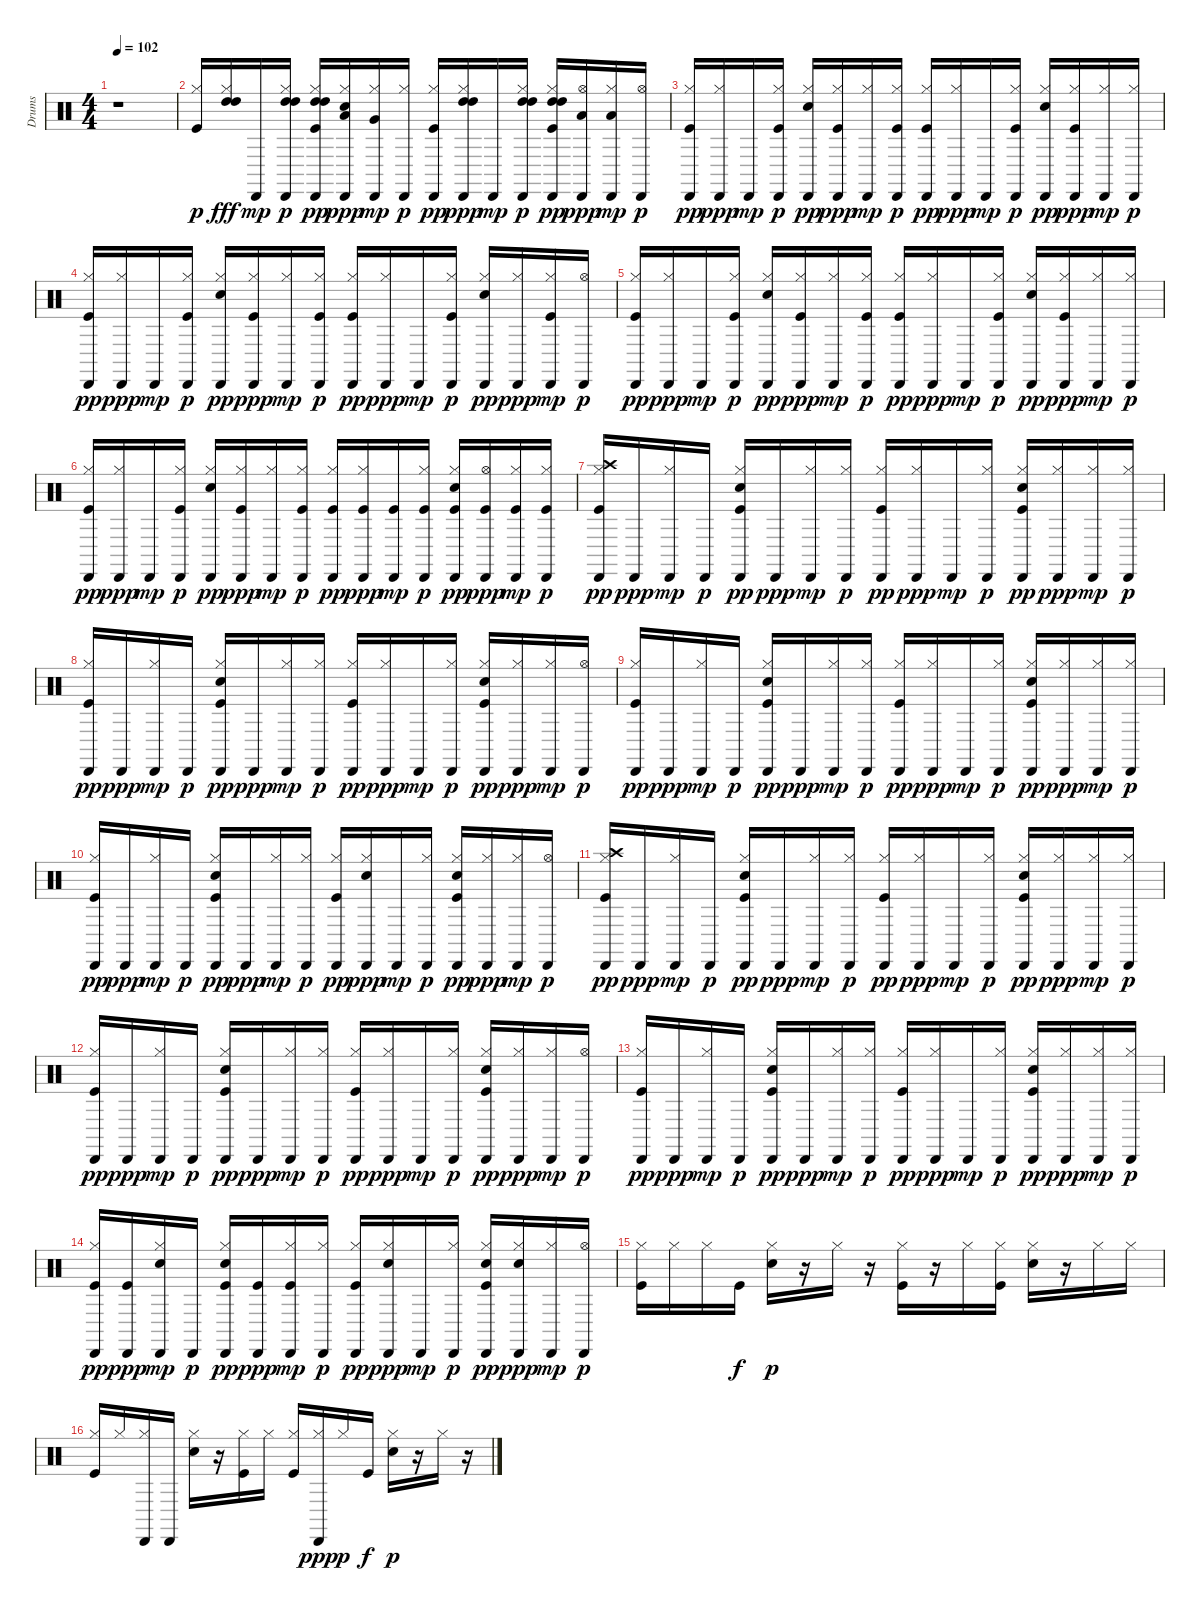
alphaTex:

\track ("Drums" "Drums") {instrument percussion}
\staff {score}
\articulation defaults
\ts (4 4)
\tempo 102
\clef neutral
\ks c
r.1{dy p} |
("Kick (hit)" "Hi-Hat (closed)").16 ("High Tom (hit)" "Hi-Hat (closed)" "High Tom (hit)").16{dy fff} "Cabasa (hit)".16{dy mp} ("High Tom (hit)" "Hi-Hat (closed)" "High Tom (hit)" "Cabasa (hit)").16{dy p} ("High Tom (hit)" "Kick (hit)" "Hi-Hat (closed)" "High Tom (hit)" "Cabasa (hit)").16{dy pp} ("Snare (hit) 2" "Hi-Hat (closed)" "Low Tom (hit)" "Cabasa (hit)").16{dy ppp} ("Hi-Hat (closed)" "Very Low Tom (hit)" "Cabasa (hit)").16{dy mp} ("Hi-Hat (closed)" "Cabasa (hit)").16{dy p} ("Kick (hit)" "Hi-Hat (closed)" "Cabasa (hit)").16{dy pp} ("High Tom (hit)" "Hi-Hat (closed)" "High Tom (hit)" "Cabasa (hit)").16{dy ppp} "Cabasa (hit)".16{dy mp} ("High Tom (hit)" "Hi-Hat (closed)" "High Tom (hit)" "Cabasa (hit)").16{dy p} ("High Tom (hit)" "Kick (hit)" "Hi-Hat (closed)" "High Tom (hit)" "Cabasa (hit)").16{dy pp} ("Low Tom (hit)" "Hi-Hat (open)" "Cabasa (hit)").16{dy ppp} ("Low Floor Tom (hit)" "Hi-Hat (closed)" "Cabasa (hit)").16{dy mp} ("Hi-Hat (open)" "Cabasa (hit)").16{dy p} |
("Kick (hit)" "Hi-Hat (closed)" "Cabasa (hit)").16{dy pp} ("Hi-Hat (closed)" "Cabasa (hit)").16{dy ppp} "Cabasa (hit)".16{dy mp} ("Kick (hit)" "Hi-Hat (closed)" "Cabasa (hit)").16{dy p} ("Snare (hit) 2" "Hi-Hat (closed)" "Cabasa (hit)").16{dy pp} ("Kick (hit)" "Hi-Hat (closed)" "Cabasa (hit)").16{dy ppp} ("Hi-Hat (closed)" "Cabasa (hit)").16{dy mp} ("Kick (hit)" "Hi-Hat (closed)" "Cabasa (hit)").16{dy p} ("Kick (hit)" "Hi-Hat (closed)" "Cabasa (hit)").16{dy pp} ("Hi-Hat (closed)" "Cabasa (hit)").16{dy ppp} "Cabasa (hit)".16{dy mp} ("Kick (hit)" "Hi-Hat (closed)" "Cabasa (hit)").16{dy p} ("Snare (hit) 2" "Hi-Hat (closed)" "Cabasa (hit)").16{dy pp} ("Kick (hit)" "Hi-Hat (closed)" "Cabasa (hit)").16{dy ppp} ("Hi-Hat (closed)" "Cabasa (hit)").16{dy mp} ("Hi-Hat (closed)" "Cabasa (hit)").16{dy p} |
("Kick (hit)" "Hi-Hat (closed)" "Cabasa (hit)").16{dy pp} ("Hi-Hat (closed)" "Cabasa (hit)").16{dy ppp} "Cabasa (hit)".16{dy mp} ("Kick (hit)" "Hi-Hat (closed)" "Cabasa (hit)").16{dy p} ("Snare (hit) 2" "Hi-Hat (closed)" "Cabasa (hit)").16{dy pp} ("Kick (hit)" "Hi-Hat (closed)" "Cabasa (hit)").16{dy ppp} ("Hi-Hat (closed)" "Cabasa (hit)").16{dy mp} ("Kick (hit)" "Hi-Hat (closed)" "Cabasa (hit)").16{dy p} ("Kick (hit)" "Hi-Hat (closed)" "Cabasa (hit)").16{dy pp} ("Hi-Hat (closed)" "Cabasa (hit)").16{dy ppp} "Cabasa (hit)".16{dy mp} ("Kick (hit)" "Hi-Hat (closed)" "Cabasa (hit)").16{dy p} ("Snare (hit) 2" "Hi-Hat (closed)" "Cabasa (hit)").16{dy pp} ("Hi-Hat (closed)" "Cabasa (hit)").16{dy ppp} ("Kick (hit)" "Hi-Hat (closed)" "Cabasa (hit)").16{dy mp} ("Hi-Hat (open)" "Cabasa (hit)").16{dy p} |
("Kick (hit)" "Hi-Hat (closed)" "Cabasa (hit)").16{dy pp} ("Hi-Hat (closed)" "Cabasa (hit)").16{dy ppp} "Cabasa (hit)".16{dy mp} ("Kick (hit)" "Hi-Hat (closed)" "Cabasa (hit)").16{dy p} ("Snare (hit) 2" "Hi-Hat (closed)" "Cabasa (hit)").16{dy pp} ("Kick (hit)" "Hi-Hat (closed)" "Cabasa (hit)").16{dy ppp} ("Hi-Hat (closed)" "Cabasa (hit)").16{dy mp} ("Kick (hit)" "Hi-Hat (closed)" "Cabasa (hit)").16{dy p} ("Kick (hit)" "Hi-Hat (closed)" "Cabasa (hit)").16{dy pp} ("Hi-Hat (closed)" "Cabasa (hit)").16{dy ppp} "Cabasa (hit)".16{dy mp} ("Kick (hit)" "Hi-Hat (closed)" "Cabasa (hit)").16{dy p} ("Snare (hit) 2" "Hi-Hat (closed)" "Cabasa (hit)").16{dy pp} ("Kick (hit)" "Hi-Hat (closed)" "Cabasa (hit)").16{dy ppp} ("Hi-Hat (closed)" "Cabasa (hit)").16{dy mp} ("Hi-Hat (closed)" "Cabasa (hit)").16{dy p} |
("Kick (hit)" "Hi-Hat (closed)" "Cabasa (hit)").16{dy pp} ("Hi-Hat (closed)" "Cabasa (hit)").16{dy ppp} "Cabasa (hit)".16{dy mp} ("Kick (hit)" "Hi-Hat (closed)" "Cabasa (hit)").16{dy p} ("Snare (hit) 2" "Hi-Hat (closed)" "Cabasa (hit)").16{dy pp} ("Kick (hit)" "Hi-Hat (closed)" "Cabasa (hit)").16{dy ppp} ("Hi-Hat (closed)" "Cabasa (hit)").16{dy mp} ("Kick (hit)" "Hi-Hat (closed)" "Cabasa (hit)").16{dy p} ("Kick (hit)" "Hi-Hat (closed)" "Cabasa (hit)").16{dy pp} ("Kick (hit)" "Hi-Hat (closed)" "Cabasa (hit)").16{dy ppp} ("Kick (hit)" "Cabasa (hit)").16{dy mp} ("Kick (hit)" "Hi-Hat (closed)" "Cabasa (hit)").16{dy p} ("Kick (hit)" "Snare (hit) 2" "Hi-Hat (closed)" "Cabasa (hit)").16{dy pp} ("Kick (hit)" "Hi-Hat (open)" "Cabasa (hit)").16{dy ppp} ("Kick (hit)" "Hi-Hat (closed)" "Cabasa (hit)").16{dy mp} ("Kick (hit)" "Hi-Hat (closed)" "Cabasa (hit)").16{dy p} |
("Kick (hit)" "Hi-Hat (closed)" "Crash high (hit)" "Cabasa (hit)").16{dy pp} "Cabasa (hit)".16{dy ppp} ("Hi-Hat (closed)" "Cabasa (hit)").16{dy mp} "Cabasa (hit)".16{dy p} ("Kick (hit)" "Snare (hit) 2" "Hi-Hat (closed)" "Cabasa (hit)").16{dy pp} "Cabasa (hit)".16{dy ppp} ("Hi-Hat (closed)" "Cabasa (hit)").16{dy mp} ("Hi-Hat (closed)" "Cabasa (hit)").16{dy p} ("Kick (hit)" "Hi-Hat (closed)" "Cabasa (hit)").16{dy pp} ("Hi-Hat (closed)" "Cabasa (hit)").16{dy ppp} "Cabasa (hit)".16{dy mp} ("Hi-Hat (closed)" "Cabasa (hit)").16{dy p} ("Kick (hit)" "Snare (hit) 2" "Hi-Hat (closed)" "Cabasa (hit)").16{dy pp} ("Hi-Hat (closed)" "Cabasa (hit)").16{dy ppp} ("Hi-Hat (closed)" "Cabasa (hit)").16{dy mp} ("Hi-Hat (closed)" "Cabasa (hit)").16{dy p} |
("Kick (hit)" "Hi-Hat (closed)" "Cabasa (hit)").16{dy pp} "Cabasa (hit)".16{dy ppp} ("Hi-Hat (closed)" "Cabasa (hit)").16{dy mp} "Cabasa (hit)".16{dy p} ("Kick (hit)" "Snare (hit) 2" "Hi-Hat (closed)" "Cabasa (hit)").16{dy pp} "Cabasa (hit)".16{dy ppp} ("Hi-Hat (closed)" "Cabasa (hit)").16{dy mp} ("Hi-Hat (closed)" "Cabasa (hit)").16{dy p} ("Kick (hit)" "Hi-Hat (closed)" "Cabasa (hit)").16{dy pp} ("Hi-Hat (closed)" "Cabasa (hit)").16{dy ppp} "Cabasa (hit)".16{dy mp} ("Hi-Hat (closed)" "Cabasa (hit)").16{dy p} ("Kick (hit)" "Snare (hit) 2" "Hi-Hat (closed)" "Cabasa (hit)").16{dy pp} ("Hi-Hat (closed)" "Cabasa (hit)").16{dy ppp} ("Hi-Hat (closed)" "Cabasa (hit)").16{dy mp} ("Hi-Hat (open)" "Cabasa (hit)").16{dy p} |
("Kick (hit)" "Hi-Hat (closed)" "Cabasa (hit)").16{dy pp} "Cabasa (hit)".16{dy ppp} ("Hi-Hat (closed)" "Cabasa (hit)").16{dy mp} "Cabasa (hit)".16{dy p} ("Kick (hit)" "Snare (hit) 2" "Hi-Hat (closed)" "Cabasa (hit)").16{dy pp} "Cabasa (hit)".16{dy ppp} ("Hi-Hat (closed)" "Cabasa (hit)").16{dy mp} ("Hi-Hat (closed)" "Cabasa (hit)").16{dy p} ("Kick (hit)" "Hi-Hat (closed)" "Cabasa (hit)").16{dy pp} ("Hi-Hat (closed)" "Cabasa (hit)").16{dy ppp} "Cabasa (hit)".16{dy mp} ("Hi-Hat (closed)" "Cabasa (hit)").16{dy p} ("Kick (hit)" "Snare (hit) 2" "Hi-Hat (closed)" "Cabasa (hit)").16{dy pp} ("Hi-Hat (closed)" "Cabasa (hit)").16{dy ppp} ("Hi-Hat (closed)" "Cabasa (hit)").16{dy mp} ("Hi-Hat (closed)" "Cabasa (hit)").16{dy p} |
("Kick (hit)" "Hi-Hat (closed)" "Cabasa (hit)").16{dy pp} "Cabasa (hit)".16{dy ppp} ("Hi-Hat (closed)" "Cabasa (hit)").16{dy mp} "Cabasa (hit)".16{dy p} ("Kick (hit)" "Snare (hit) 2" "Hi-Hat (closed)" "Cabasa (hit)").16{dy pp} "Cabasa (hit)".16{dy ppp} ("Hi-Hat (closed)" "Cabasa (hit)").16{dy mp} ("Hi-Hat (closed)" "Cabasa (hit)").16{dy p} ("Kick (hit)" "Hi-Hat (closed)" "Cabasa (hit)").16{dy pp} ("Snare (hit) 2" "Hi-Hat (closed)" "Cabasa (hit)").16{dy ppp} "Cabasa (hit)".16{dy mp} ("Hi-Hat (closed)" "Cabasa (hit)").16{dy p} ("Kick (hit)" "Snare (hit) 2" "Hi-Hat (closed)" "Cabasa (hit)").16{dy pp} ("Hi-Hat (closed)" "Cabasa (hit)").16{dy ppp} ("Hi-Hat (closed)" "Cabasa (hit)").16{dy mp} ("Hi-Hat (open)" "Cabasa (hit)").16{dy p} |
("Kick (hit)" "Hi-Hat (closed)" "Crash high (hit)" "Cabasa (hit)").16{dy pp} "Cabasa (hit)".16{dy ppp} ("Hi-Hat (closed)" "Cabasa (hit)").16{dy mp} "Cabasa (hit)".16{dy p} ("Kick (hit)" "Snare (hit) 2" "Hi-Hat (closed)" "Cabasa (hit)").16{dy pp} "Cabasa (hit)".16{dy ppp} ("Hi-Hat (closed)" "Cabasa (hit)").16{dy mp} ("Hi-Hat (closed)" "Cabasa (hit)").16{dy p} ("Kick (hit)" "Hi-Hat (closed)" "Cabasa (hit)").16{dy pp} ("Hi-Hat (closed)" "Cabasa (hit)").16{dy ppp} "Cabasa (hit)".16{dy mp} ("Hi-Hat (closed)" "Cabasa (hit)").16{dy p} ("Kick (hit)" "Snare (hit) 2" "Hi-Hat (closed)" "Cabasa (hit)").16{dy pp} ("Hi-Hat (closed)" "Cabasa (hit)").16{dy ppp} ("Hi-Hat (closed)" "Cabasa (hit)").16{dy mp} ("Hi-Hat (closed)" "Cabasa (hit)").16{dy p} |
("Kick (hit)" "Hi-Hat (closed)" "Cabasa (hit)").16{dy pp} "Cabasa (hit)".16{dy ppp} ("Hi-Hat (closed)" "Cabasa (hit)").16{dy mp} "Cabasa (hit)".16{dy p} ("Kick (hit)" "Snare (hit) 2" "Hi-Hat (closed)" "Cabasa (hit)").16{dy pp} "Cabasa (hit)".16{dy ppp} ("Hi-Hat (closed)" "Cabasa (hit)").16{dy mp} ("Hi-Hat (closed)" "Cabasa (hit)").16{dy p} ("Kick (hit)" "Hi-Hat (closed)" "Cabasa (hit)").16{dy pp} ("Hi-Hat (closed)" "Cabasa (hit)").16{dy ppp} "Cabasa (hit)".16{dy mp} ("Hi-Hat (closed)" "Cabasa (hit)").16{dy p} ("Kick (hit)" "Snare (hit) 2" "Hi-Hat (closed)" "Cabasa (hit)").16{dy pp} ("Hi-Hat (closed)" "Cabasa (hit)").16{dy ppp} ("Hi-Hat (closed)" "Cabasa (hit)").16{dy mp} ("Hi-Hat (open)" "Cabasa (hit)").16{dy p} |
("Kick (hit)" "Hi-Hat (closed)" "Cabasa (hit)").16{dy pp} "Cabasa (hit)".16{dy ppp} ("Hi-Hat (closed)" "Cabasa (hit)").16{dy mp} "Cabasa (hit)".16{dy p} ("Kick (hit)" "Snare (hit) 2" "Hi-Hat (closed)" "Cabasa (hit)").16{dy pp} "Cabasa (hit)".16{dy ppp} ("Hi-Hat (closed)" "Cabasa (hit)").16{dy mp} ("Hi-Hat (closed)" "Cabasa (hit)").16{dy p} ("Kick (hit)" "Hi-Hat (closed)" "Cabasa (hit)").16{dy pp} ("Hi-Hat (closed)" "Cabasa (hit)").16{dy ppp} "Cabasa (hit)".16{dy mp} ("Hi-Hat (closed)" "Cabasa (hit)").16{dy p} ("Kick (hit)" "Snare (hit) 2" "Hi-Hat (closed)" "Cabasa (hit)").16{dy pp} ("Hi-Hat (closed)" "Cabasa (hit)").16{dy ppp} ("Hi-Hat (closed)" "Cabasa (hit)").16{dy mp} ("Hi-Hat (closed)" "Cabasa (hit)").16{dy p} |
("Kick (hit)" "Hi-Hat (closed)" "Cabasa (hit)").16{dy pp} ("Kick (hit)" "Cabasa (hit)").16{dy ppp} ("Snare (hit) 2" "Hi-Hat (closed)" "Cabasa (hit)").16{dy mp} "Cabasa (hit)".16{dy p} ("Kick (hit)" "Snare (hit) 2" "Hi-Hat (closed)" "Cabasa (hit)").16{dy pp} ("Kick (hit)" "Cabasa (hit)").16{dy ppp} ("Kick (hit)" "Hi-Hat (closed)" "Cabasa (hit)").16{dy mp} ("Hi-Hat (closed)" "Cabasa (hit)").16{dy p} ("Kick (hit)" "Hi-Hat (closed)" "Cabasa (hit)").16{dy pp} ("Snare (hit) 2" "Hi-Hat (closed)" "Cabasa (hit)").16{dy ppp} "Cabasa (hit)".16{dy mp} ("Hi-Hat (closed)" "Cabasa (hit)").16{dy p} ("Kick (hit)" "Snare (hit) 2" "Hi-Hat (closed)" "Cabasa (hit)").16{dy pp} ("Snare (hit) 2" "Hi-Hat (closed)" "Cabasa (hit)").16{dy ppp} ("Hi-Hat (closed)" "Cabasa (hit)").16{dy mp} ("Hi-Hat (open)" "Cabasa (hit)").16{dy p} |
("Kick (hit)" "Hi-Hat (closed)").16 "Hi-Hat (closed)".16 "Hi-Hat (closed)".16 "Kick (hit)".16{dy f} ("Snare (hit) 2" "Hi-Hat (closed)").16{dy p} r.16 "Hi-Hat (closed)".16 r.16 ("Kick (hit)" "Hi-Hat (closed)").16 r.16 "Hi-Hat (closed)".16 ("Kick (hit)" "Hi-Hat (closed)").16 ("Snare (hit) 2" "Hi-Hat (closed)").16 r.16 "Hi-Hat (closed)".16 "Hi-Hat (closed)".16 |
("Kick (hit)" "Hi-Hat (closed)").16 "Hi-Hat (closed)".16 ("Hi-Hat (closed)" "Cabasa (hit)").16 "Cabasa (hit)".16 ("Snare (hit) 2" "Hi-Hat (closed)").16 r.16 ("Kick (hit)" "Hi-Hat (closed)").16 "Hi-Hat (closed)".16 ("Kick (hit)" "Hi-Hat (closed)").16 ("Hi-Hat (closed)" "Cabasa (hit)").16{dy ppp} "Hi-Hat (closed)".16{dy p} "Kick (hit)".16{dy f} ("Snare (hit) 2" "Hi-Hat (closed)").16{dy p} r.16 "Hi-Hat (closed)".16 r.16
